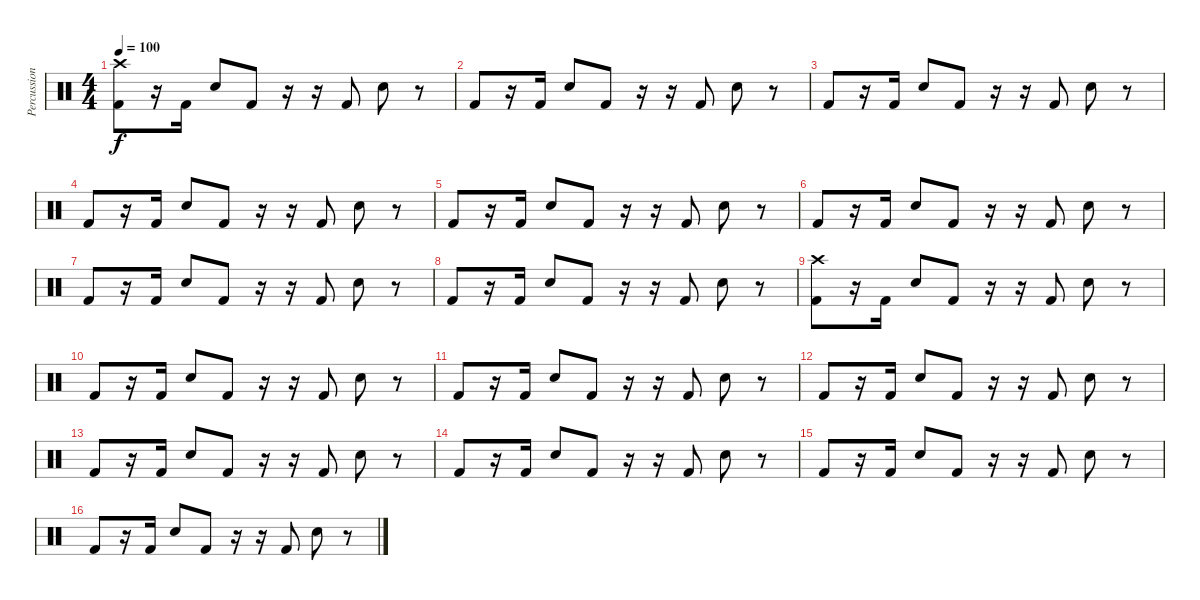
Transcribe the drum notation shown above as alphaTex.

\track ("Percussions" "Percussion") {instrument percussion}
\staff {score}
\articulation defaults
\ts (4 4)
\tempo 100
\clef neutral
\ks c
("Crash high (hit)" "Kick (hit) 2").8{dy f} r.16 "Kick (hit) 2".16 "Snare (hit) 2".8 "Kick (hit) 2".8 r.16 r.16 "Kick (hit) 2".8 "Snare (hit) 2".8 r.8 |
"Kick (hit) 2".8 r.16 "Kick (hit) 2".16 "Snare (hit) 2".8 "Kick (hit) 2".8 r.16 r.16 "Kick (hit) 2".8 "Snare (hit) 2".8 r.8 |
"Kick (hit) 2".8 r.16 "Kick (hit) 2".16 "Snare (hit) 2".8 "Kick (hit) 2".8 r.16 r.16 "Kick (hit) 2".8 "Snare (hit) 2".8 r.8 |
"Kick (hit) 2".8 r.16 "Kick (hit) 2".16 "Snare (hit) 2".8 "Kick (hit) 2".8 r.16 r.16 "Kick (hit) 2".8 "Snare (hit) 2".8 r.8 |
"Kick (hit) 2".8 r.16 "Kick (hit) 2".16 "Snare (hit) 2".8 "Kick (hit) 2".8 r.16 r.16 "Kick (hit) 2".8 "Snare (hit) 2".8 r.8 |
"Kick (hit) 2".8 r.16 "Kick (hit) 2".16 "Snare (hit) 2".8 "Kick (hit) 2".8 r.16 r.16 "Kick (hit) 2".8 "Snare (hit) 2".8 r.8 |
"Kick (hit) 2".8 r.16 "Kick (hit) 2".16 "Snare (hit) 2".8 "Kick (hit) 2".8 r.16 r.16 "Kick (hit) 2".8 "Snare (hit) 2".8 r.8 |
"Kick (hit) 2".8 r.16 "Kick (hit) 2".16 "Snare (hit) 2".8 "Kick (hit) 2".8 r.16 r.16 "Kick (hit) 2".8 "Snare (hit) 2".8 r.8 |
("Crash high (hit)" "Kick (hit) 2").8 r.16 "Kick (hit) 2".16 "Snare (hit) 2".8 "Kick (hit) 2".8 r.16 r.16 "Kick (hit) 2".8 "Snare (hit) 2".8 r.8 |
"Kick (hit) 2".8 r.16 "Kick (hit) 2".16 "Snare (hit) 2".8 "Kick (hit) 2".8 r.16 r.16 "Kick (hit) 2".8 "Snare (hit) 2".8 r.8 |
"Kick (hit) 2".8 r.16 "Kick (hit) 2".16 "Snare (hit) 2".8 "Kick (hit) 2".8 r.16 r.16 "Kick (hit) 2".8 "Snare (hit) 2".8 r.8 |
"Kick (hit) 2".8 r.16 "Kick (hit) 2".16 "Snare (hit) 2".8 "Kick (hit) 2".8 r.16 r.16 "Kick (hit) 2".8 "Snare (hit) 2".8 r.8 |
"Kick (hit) 2".8 r.16 "Kick (hit) 2".16 "Snare (hit) 2".8 "Kick (hit) 2".8 r.16 r.16 "Kick (hit) 2".8 "Snare (hit) 2".8 r.8 |
"Kick (hit) 2".8 r.16 "Kick (hit) 2".16 "Snare (hit) 2".8 "Kick (hit) 2".8 r.16 r.16 "Kick (hit) 2".8 "Snare (hit) 2".8 r.8 |
"Kick (hit) 2".8 r.16 "Kick (hit) 2".16 "Snare (hit) 2".8 "Kick (hit) 2".8 r.16 r.16 "Kick (hit) 2".8 "Snare (hit) 2".8 r.8 |
"Kick (hit) 2".8 r.16 "Kick (hit) 2".16 "Snare (hit) 2".8 "Kick (hit) 2".8 r.16 r.16 "Kick (hit) 2".8 "Snare (hit) 2".8 r.8
